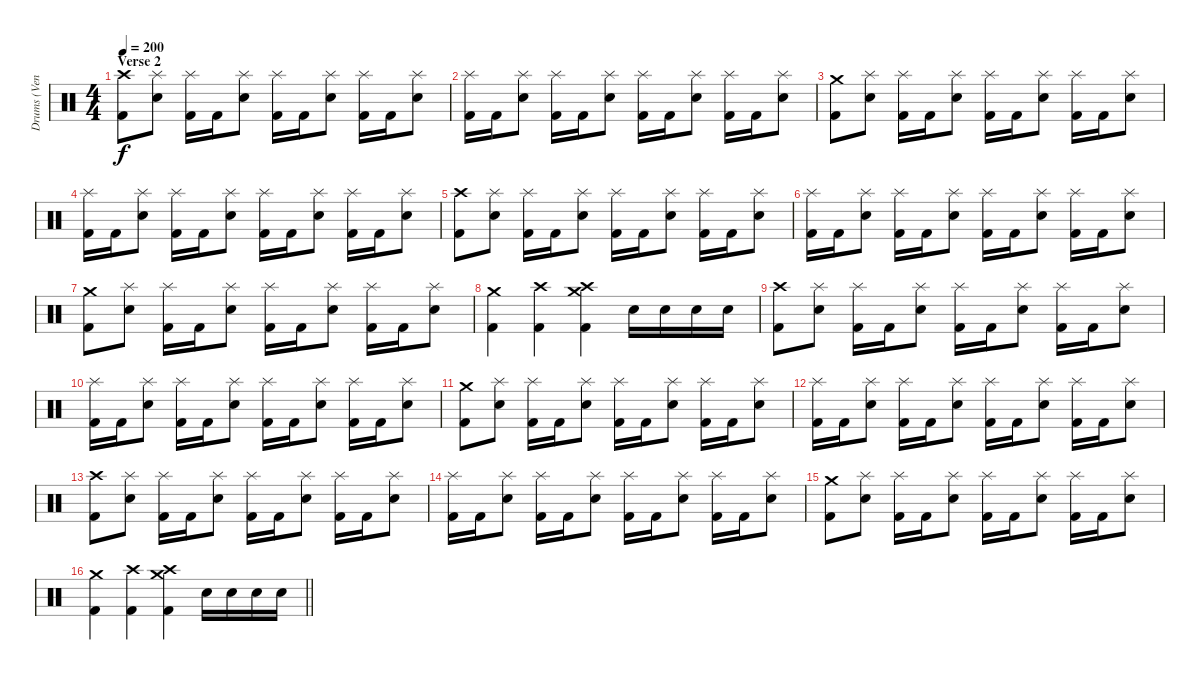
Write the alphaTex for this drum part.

\track ("Drums (Ventor)" "Drums (Ven") {instrument percussion}
\staff {score}
\articulation defaults
\ts (4 4)
\section ("" "Verse 2")
\tempo 200
\clef neutral
\ks c
("Crash high (hit)" "Kick (hit) 2").8{dy f} ("Electric Snare (hit)" "Splash (hit)").8 ("Splash (hit)" "Kick (hit) 2").16 "Kick (hit) 2".16 ("Electric Snare (hit)" "Splash (hit)").8 ("Splash (hit)" "Kick (hit) 2").16 "Kick (hit) 2".16 ("Electric Snare (hit)" "Splash (hit)").8 ("Splash (hit)" "Kick (hit) 2").16 "Kick (hit) 2".16 ("Electric Snare (hit)" "Splash (hit)").8 |
("Splash (hit)" "Kick (hit) 2").16 "Kick (hit) 2".16 ("Electric Snare (hit)" "Splash (hit)").8 ("Splash (hit)" "Kick (hit) 2").16 "Kick (hit) 2".16 ("Electric Snare (hit)" "Splash (hit)").8 ("Splash (hit)" "Kick (hit) 2").16 "Kick (hit) 2".16 ("Electric Snare (hit)" "Splash (hit)").8 ("Splash (hit)" "Kick (hit) 2").16 "Kick (hit) 2".16 ("Electric Snare (hit)" "Splash (hit)").8 |
("Crash medium (hit)" "Kick (hit) 2").8 ("Electric Snare (hit)" "Splash (hit)").8 ("Splash (hit)" "Kick (hit) 2").16 "Kick (hit) 2".16 ("Electric Snare (hit)" "Splash (hit)").8 ("Splash (hit)" "Kick (hit) 2").16 "Kick (hit) 2".16 ("Electric Snare (hit)" "Splash (hit)").8 ("Splash (hit)" "Kick (hit) 2").16 "Kick (hit) 2".16 ("Electric Snare (hit)" "Splash (hit)").8 |
("Splash (hit)" "Kick (hit) 2").16 "Kick (hit) 2".16 ("Electric Snare (hit)" "Splash (hit)").8 ("Splash (hit)" "Kick (hit) 2").16 "Kick (hit) 2".16 ("Electric Snare (hit)" "Splash (hit)").8 ("Splash (hit)" "Kick (hit) 2").16 "Kick (hit) 2".16 ("Electric Snare (hit)" "Splash (hit)").8 ("Splash (hit)" "Kick (hit) 2").16 "Kick (hit) 2".16 ("Electric Snare (hit)" "Splash (hit)").8 |
("Crash high (hit)" "Kick (hit) 2").8 ("Electric Snare (hit)" "Splash (hit)").8 ("Splash (hit)" "Kick (hit) 2").16 "Kick (hit) 2".16 ("Electric Snare (hit)" "Splash (hit)").8 ("Splash (hit)" "Kick (hit) 2").16 "Kick (hit) 2".16 ("Electric Snare (hit)" "Splash (hit)").8 ("Splash (hit)" "Kick (hit) 2").16 "Kick (hit) 2".16 ("Electric Snare (hit)" "Splash (hit)").8 |
("Splash (hit)" "Kick (hit) 2").16 "Kick (hit) 2".16 ("Electric Snare (hit)" "Splash (hit)").8 ("Splash (hit)" "Kick (hit) 2").16 "Kick (hit) 2".16 ("Electric Snare (hit)" "Splash (hit)").8 ("Splash (hit)" "Kick (hit) 2").16 "Kick (hit) 2".16 ("Electric Snare (hit)" "Splash (hit)").8 ("Splash (hit)" "Kick (hit) 2").16 "Kick (hit) 2".16 ("Electric Snare (hit)" "Splash (hit)").8 |
("Crash medium (hit)" "Kick (hit) 2").8 ("Electric Snare (hit)" "Splash (hit)").8 ("Splash (hit)" "Kick (hit) 2").16 "Kick (hit) 2".16 ("Electric Snare (hit)" "Splash (hit)").8 ("Splash (hit)" "Kick (hit) 2").16 "Kick (hit) 2".16 ("Electric Snare (hit)" "Splash (hit)").8 ("Splash (hit)" "Kick (hit) 2").16 "Kick (hit) 2".16 ("Electric Snare (hit)" "Splash (hit)").8 |
("Crash medium (hit)" "Kick (hit) 2").4 ("Crash high (hit)" "Kick (hit) 2").4 ("Crash medium (hit)" "Crash high (hit)" "Kick (hit) 2").4 "Electric Snare (hit)".16 "Electric Snare (hit)".16 "Electric Snare (hit)".16 "Electric Snare (hit)".16 |
("Crash high (hit)" "Kick (hit) 2").8 ("Electric Snare (hit)" "Splash (hit)").8 ("Splash (hit)" "Kick (hit) 2").16 "Kick (hit) 2".16 ("Electric Snare (hit)" "Splash (hit)").8 ("Splash (hit)" "Kick (hit) 2").16 "Kick (hit) 2".16 ("Electric Snare (hit)" "Splash (hit)").8 ("Splash (hit)" "Kick (hit) 2").16 "Kick (hit) 2".16 ("Electric Snare (hit)" "Splash (hit)").8 |
("Splash (hit)" "Kick (hit) 2").16 "Kick (hit) 2".16 ("Electric Snare (hit)" "Splash (hit)").8 ("Splash (hit)" "Kick (hit) 2").16 "Kick (hit) 2".16 ("Electric Snare (hit)" "Splash (hit)").8 ("Splash (hit)" "Kick (hit) 2").16 "Kick (hit) 2".16 ("Electric Snare (hit)" "Splash (hit)").8 ("Splash (hit)" "Kick (hit) 2").16 "Kick (hit) 2".16 ("Electric Snare (hit)" "Splash (hit)").8 |
("Crash medium (hit)" "Kick (hit) 2").8 ("Electric Snare (hit)" "Splash (hit)").8 ("Splash (hit)" "Kick (hit) 2").16 "Kick (hit) 2".16 ("Electric Snare (hit)" "Splash (hit)").8 ("Splash (hit)" "Kick (hit) 2").16 "Kick (hit) 2".16 ("Electric Snare (hit)" "Splash (hit)").8 ("Splash (hit)" "Kick (hit) 2").16 "Kick (hit) 2".16 ("Electric Snare (hit)" "Splash (hit)").8 |
("Splash (hit)" "Kick (hit) 2").16 "Kick (hit) 2".16 ("Electric Snare (hit)" "Splash (hit)").8 ("Splash (hit)" "Kick (hit) 2").16 "Kick (hit) 2".16 ("Electric Snare (hit)" "Splash (hit)").8 ("Splash (hit)" "Kick (hit) 2").16 "Kick (hit) 2".16 ("Electric Snare (hit)" "Splash (hit)").8 ("Splash (hit)" "Kick (hit) 2").16 "Kick (hit) 2".16 ("Electric Snare (hit)" "Splash (hit)").8 |
("Crash high (hit)" "Kick (hit) 2").8 ("Electric Snare (hit)" "Splash (hit)").8 ("Splash (hit)" "Kick (hit) 2").16 "Kick (hit) 2".16 ("Electric Snare (hit)" "Splash (hit)").8 ("Splash (hit)" "Kick (hit) 2").16 "Kick (hit) 2".16 ("Electric Snare (hit)" "Splash (hit)").8 ("Splash (hit)" "Kick (hit) 2").16 "Kick (hit) 2".16 ("Electric Snare (hit)" "Splash (hit)").8 |
("Splash (hit)" "Kick (hit) 2").16 "Kick (hit) 2".16 ("Electric Snare (hit)" "Splash (hit)").8 ("Splash (hit)" "Kick (hit) 2").16 "Kick (hit) 2".16 ("Electric Snare (hit)" "Splash (hit)").8 ("Splash (hit)" "Kick (hit) 2").16 "Kick (hit) 2".16 ("Electric Snare (hit)" "Splash (hit)").8 ("Splash (hit)" "Kick (hit) 2").16 "Kick (hit) 2".16 ("Electric Snare (hit)" "Splash (hit)").8 |
("Crash medium (hit)" "Kick (hit) 2").8 ("Electric Snare (hit)" "Splash (hit)").8 ("Splash (hit)" "Kick (hit) 2").16 "Kick (hit) 2".16 ("Electric Snare (hit)" "Splash (hit)").8 ("Splash (hit)" "Kick (hit) 2").16 "Kick (hit) 2".16 ("Electric Snare (hit)" "Splash (hit)").8 ("Splash (hit)" "Kick (hit) 2").16 "Kick (hit) 2".16 ("Electric Snare (hit)" "Splash (hit)").8 |
\barLineRight lightlight
("Crash medium (hit)" "Kick (hit) 2").4 ("Crash high (hit)" "Kick (hit) 2").4 ("Crash medium (hit)" "Crash high (hit)" "Kick (hit) 2").4 "Electric Snare (hit)".16 "Electric Snare (hit)".16 "Electric Snare (hit)".16 "Electric Snare (hit)".16
